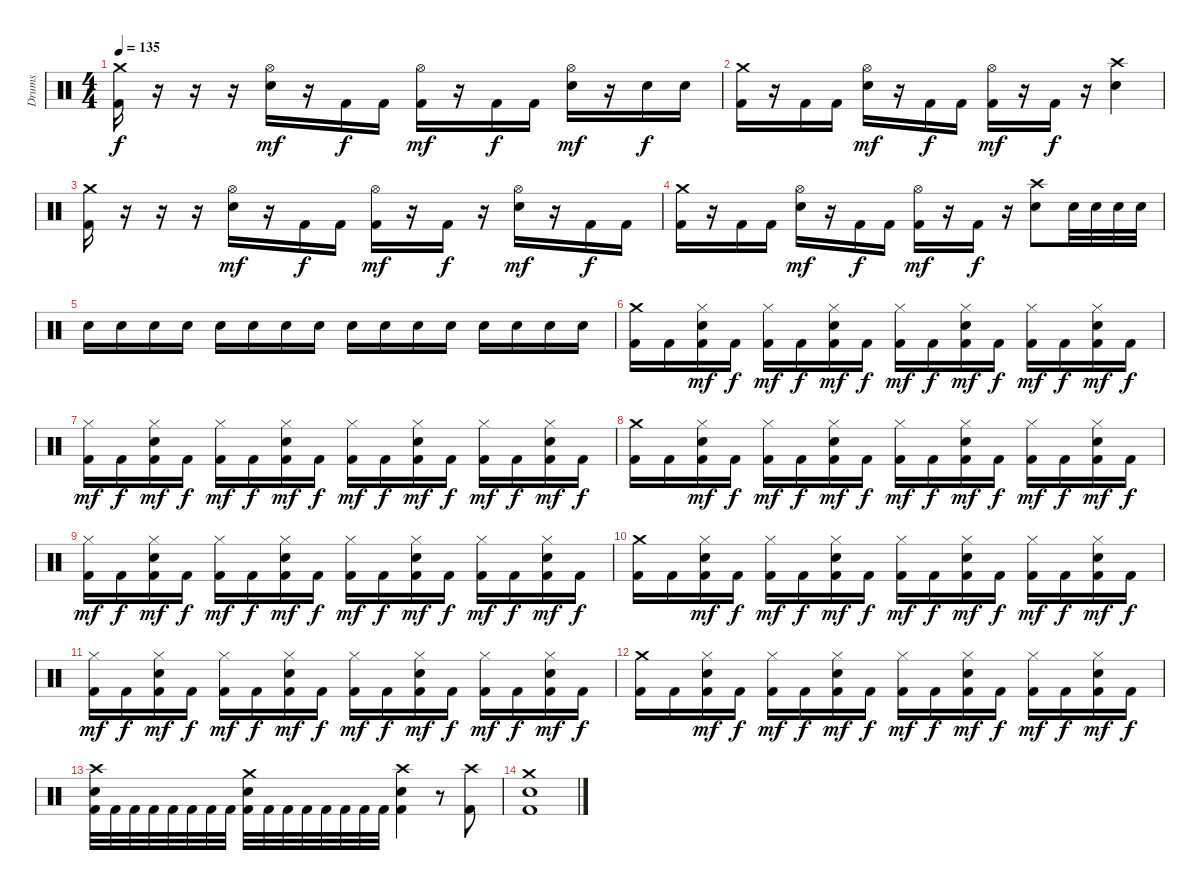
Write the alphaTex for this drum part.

\track ("Drums" "Drums") {instrument percussion}
\staff {score}
\articulation defaults
\ts (4 4)
\tempo 135
\clef neutral
\ks c
("Crash medium (hit)" "Kick (hit) 2").16{dy f} r.16 r.16 r.16 ("Hi-Hat (open)" "Electric Snare (hit)").16{dy mf} r.16 "Kick (hit) 2".16{dy f} "Kick (hit) 2".16 ("Hi-Hat (open)" "Kick (hit) 2").16{dy mf} r.16 "Kick (hit) 2".16{dy f} "Kick (hit) 2".16 ("Hi-Hat (open)" "Electric Snare (hit)").16{dy mf} r.16 "Electric Snare (hit)".16{dy f} "Electric Snare (hit)".16 |
("Crash medium (hit)" "Kick (hit) 2").16 r.16 "Kick (hit) 2".16 "Kick (hit) 2".16 ("Hi-Hat (open)" "Electric Snare (hit)").16{dy mf} r.16 "Kick (hit) 2".16{dy f} "Kick (hit) 2".16 ("Hi-Hat (open)" "Kick (hit) 2").16{dy mf} r.16 "Kick (hit) 2".16{dy f} r.16 ("Crash high (hit)" "Electric Snare (hit)").4 |
("Crash medium (hit)" "Kick (hit) 2").16 r.16 r.16 r.16 ("Hi-Hat (open)" "Electric Snare (hit)").16{dy mf} r.16 "Kick (hit) 2".16{dy f} "Kick (hit) 2".16 ("Hi-Hat (open)" "Kick (hit) 2").16{dy mf} r.16 "Kick (hit) 2".16{dy f} r.16 ("Hi-Hat (open)" "Electric Snare (hit)").16{dy mf} r.16 "Kick (hit) 2".16{dy f} "Kick (hit) 2".16 |
("Crash medium (hit)" "Kick (hit) 2").16 r.16 "Kick (hit) 2".16 "Kick (hit) 2".16 ("Hi-Hat (open)" "Electric Snare (hit)").16{dy mf} r.16 "Kick (hit) 2".16{dy f} "Kick (hit) 2".16 ("Hi-Hat (open)" "Kick (hit) 2").16{dy mf} r.16 "Kick (hit) 2".16{dy f} r.16 ("Crash high (hit)" "Electric Snare (hit)").8 "Electric Snare (hit)".32 "Electric Snare (hit)".32 "Electric Snare (hit)".32 "Electric Snare (hit)".32 |
"Electric Snare (hit)".16 "Electric Snare (hit)".16 "Electric Snare (hit)".16 "Electric Snare (hit)".16 "Electric Snare (hit)".16 "Electric Snare (hit)".16 "Electric Snare (hit)".16 "Electric Snare (hit)".16 "Electric Snare (hit)".16 "Electric Snare (hit)".16 "Electric Snare (hit)".16 "Electric Snare (hit)".16 "Electric Snare (hit)".16 "Electric Snare (hit)".16 "Electric Snare (hit)".16 "Electric Snare (hit)".16 |
("Crash medium (hit)" "Kick (hit) 2").16 "Kick (hit) 2".16 ("Hi-Hat (closed)" "Electric Snare (hit)" "Kick (hit) 2").16{dy mf} "Kick (hit) 2".16{dy f} ("Hi-Hat (closed)" "Kick (hit) 2").16{dy mf} "Kick (hit) 2".16{dy f} ("Hi-Hat (closed)" "Electric Snare (hit)" "Kick (hit) 2").16{dy mf} "Kick (hit) 2".16{dy f} ("Hi-Hat (closed)" "Kick (hit) 2").16{dy mf} "Kick (hit) 2".16{dy f} ("Hi-Hat (closed)" "Electric Snare (hit)" "Kick (hit) 2").16{dy mf} "Kick (hit) 2".16{dy f} ("Hi-Hat (closed)" "Kick (hit) 2").16{dy mf} "Kick (hit) 2".16{dy f} ("Hi-Hat (closed)" "Electric Snare (hit)" "Kick (hit) 2").16{dy mf} "Kick (hit) 2".16{dy f} |
("Hi-Hat (closed)" "Kick (hit) 2").16{dy mf} "Kick (hit) 2".16{dy f} ("Hi-Hat (closed)" "Electric Snare (hit)" "Kick (hit) 2").16{dy mf} "Kick (hit) 2".16{dy f} ("Hi-Hat (closed)" "Kick (hit) 2").16{dy mf} "Kick (hit) 2".16{dy f} ("Hi-Hat (closed)" "Electric Snare (hit)" "Kick (hit) 2").16{dy mf} "Kick (hit) 2".16{dy f} ("Hi-Hat (closed)" "Kick (hit) 2").16{dy mf} "Kick (hit) 2".16{dy f} ("Hi-Hat (closed)" "Electric Snare (hit)" "Kick (hit) 2").16{dy mf} "Kick (hit) 2".16{dy f} ("Hi-Hat (closed)" "Kick (hit) 2").16{dy mf} "Kick (hit) 2".16{dy f} ("Hi-Hat (closed)" "Electric Snare (hit)" "Kick (hit) 2").16{dy mf} "Kick (hit) 2".16{dy f} |
("Crash medium (hit)" "Kick (hit) 2").16 "Kick (hit) 2".16 ("Hi-Hat (closed)" "Electric Snare (hit)" "Kick (hit) 2").16{dy mf} "Kick (hit) 2".16{dy f} ("Hi-Hat (closed)" "Kick (hit) 2").16{dy mf} "Kick (hit) 2".16{dy f} ("Hi-Hat (closed)" "Electric Snare (hit)" "Kick (hit) 2").16{dy mf} "Kick (hit) 2".16{dy f} ("Hi-Hat (closed)" "Kick (hit) 2").16{dy mf} "Kick (hit) 2".16{dy f} ("Hi-Hat (closed)" "Electric Snare (hit)" "Kick (hit) 2").16{dy mf} "Kick (hit) 2".16{dy f} ("Hi-Hat (closed)" "Kick (hit) 2").16{dy mf} "Kick (hit) 2".16{dy f} ("Hi-Hat (closed)" "Electric Snare (hit)" "Kick (hit) 2").16{dy mf} "Kick (hit) 2".16{dy f} |
("Hi-Hat (closed)" "Kick (hit) 2").16{dy mf} "Kick (hit) 2".16{dy f} ("Hi-Hat (closed)" "Electric Snare (hit)" "Kick (hit) 2").16{dy mf} "Kick (hit) 2".16{dy f} ("Hi-Hat (closed)" "Kick (hit) 2").16{dy mf} "Kick (hit) 2".16{dy f} ("Hi-Hat (closed)" "Electric Snare (hit)" "Kick (hit) 2").16{dy mf} "Kick (hit) 2".16{dy f} ("Hi-Hat (closed)" "Kick (hit) 2").16{dy mf} "Kick (hit) 2".16{dy f} ("Hi-Hat (closed)" "Electric Snare (hit)" "Kick (hit) 2").16{dy mf} "Kick (hit) 2".16{dy f} ("Hi-Hat (closed)" "Kick (hit) 2").16{dy mf} "Kick (hit) 2".16{dy f} ("Hi-Hat (closed)" "Electric Snare (hit)" "Kick (hit) 2").16{dy mf} "Kick (hit) 2".16{dy f} |
("Crash medium (hit)" "Kick (hit) 2").16 "Kick (hit) 2".16 ("Hi-Hat (closed)" "Electric Snare (hit)" "Kick (hit) 2").16{dy mf} "Kick (hit) 2".16{dy f} ("Hi-Hat (closed)" "Kick (hit) 2").16{dy mf} "Kick (hit) 2".16{dy f} ("Hi-Hat (closed)" "Electric Snare (hit)" "Kick (hit) 2").16{dy mf} "Kick (hit) 2".16{dy f} ("Hi-Hat (closed)" "Kick (hit) 2").16{dy mf} "Kick (hit) 2".16{dy f} ("Hi-Hat (closed)" "Electric Snare (hit)" "Kick (hit) 2").16{dy mf} "Kick (hit) 2".16{dy f} ("Hi-Hat (closed)" "Kick (hit) 2").16{dy mf} "Kick (hit) 2".16{dy f} ("Hi-Hat (closed)" "Electric Snare (hit)" "Kick (hit) 2").16{dy mf} "Kick (hit) 2".16{dy f} |
("Hi-Hat (closed)" "Kick (hit) 2").16{dy mf} "Kick (hit) 2".16{dy f} ("Hi-Hat (closed)" "Electric Snare (hit)" "Kick (hit) 2").16{dy mf} "Kick (hit) 2".16{dy f} ("Hi-Hat (closed)" "Kick (hit) 2").16{dy mf} "Kick (hit) 2".16{dy f} ("Hi-Hat (closed)" "Electric Snare (hit)" "Kick (hit) 2").16{dy mf} "Kick (hit) 2".16{dy f} ("Hi-Hat (closed)" "Kick (hit) 2").16{dy mf} "Kick (hit) 2".16{dy f} ("Hi-Hat (closed)" "Electric Snare (hit)" "Kick (hit) 2").16{dy mf} "Kick (hit) 2".16{dy f} ("Hi-Hat (closed)" "Kick (hit) 2").16{dy mf} "Kick (hit) 2".16{dy f} ("Hi-Hat (closed)" "Electric Snare (hit)" "Kick (hit) 2").16{dy mf} "Kick (hit) 2".16{dy f} |
("Crash medium (hit)" "Kick (hit) 2").16 "Kick (hit) 2".16 ("Hi-Hat (closed)" "Electric Snare (hit)" "Kick (hit) 2").16{dy mf} "Kick (hit) 2".16{dy f} ("Hi-Hat (closed)" "Kick (hit) 2").16{dy mf} "Kick (hit) 2".16{dy f} ("Hi-Hat (closed)" "Electric Snare (hit)" "Kick (hit) 2").16{dy mf} "Kick (hit) 2".16{dy f} ("Hi-Hat (closed)" "Kick (hit) 2").16{dy mf} "Kick (hit) 2".16{dy f} ("Hi-Hat (closed)" "Electric Snare (hit)" "Kick (hit) 2").16{dy mf} "Kick (hit) 2".16{dy f} ("Hi-Hat (closed)" "Kick (hit) 2").16{dy mf} "Kick (hit) 2".16{dy f} ("Hi-Hat (closed)" "Electric Snare (hit)" "Kick (hit) 2").16{dy mf} "Kick (hit) 2".16{dy f} |
("Crash high (hit)" "Electric Snare (hit)" "Kick (hit) 2").32 "Kick (hit) 2".32 "Kick (hit) 2".32 "Kick (hit) 2".32 "Kick (hit) 2".32 "Kick (hit) 2".32 "Kick (hit) 2".32 "Kick (hit) 2".32 ("Crash medium (hit)" "Electric Snare (hit)" "Kick (hit) 2").32 "Kick (hit) 2".32 "Kick (hit) 2".32 "Kick (hit) 2".32 "Kick (hit) 2".32 "Kick (hit) 2".32 "Kick (hit) 2".32 "Kick (hit) 2".32 ("Crash high (hit)" "Electric Snare (hit)" "Kick (hit) 2").4 r.8 ("Crash high (hit)" "Kick (hit) 2").8 |
("Crash medium (hit)" "Electric Snare (hit)" "Kick (hit) 2").1
